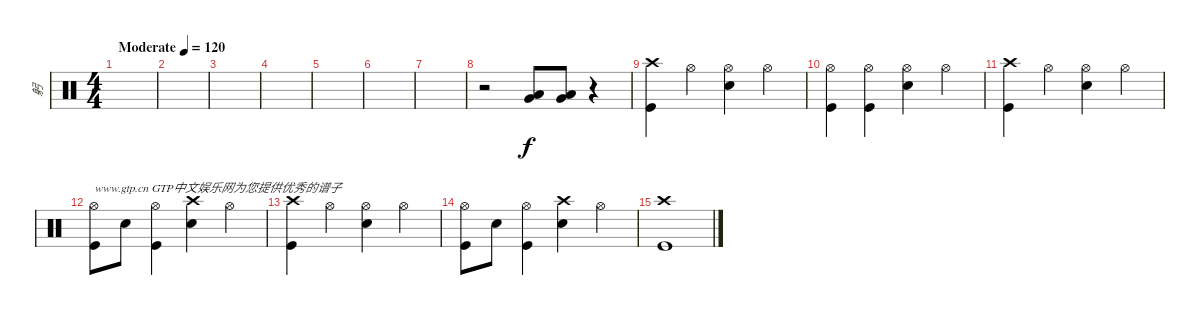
\track ("躬" "躬") {instrument percussion}
\staff {score}
\articulation defaults
\ts (4 4)
\tempo (120 "Moderate")
\clef neutral
\ks c
|
|
|
|
|
|
|
r.2 ("Low Tom (hit)" "Very Low Tom (hit)").8 ("Low Tom (hit)" "Very Low Tom (hit)").8 r.4 |
("Crash high (hit)" "Kick (hit)").4 "Hi-Hat (open)".4 ("Hi-Hat (open)" "Snare (hit) 2").4 "Hi-Hat (open)".4 |
("Hi-Hat (open)" "Kick (hit)").4 ("Hi-Hat (open)" "Kick (hit)").4 ("Hi-Hat (open)" "Snare (hit) 2").4 "Hi-Hat (open)".4 |
("Crash high (hit)" "Kick (hit)").4 "Hi-Hat (open)".4 ("Hi-Hat (open)" "Snare (hit) 2").4 "Hi-Hat (open)".4 |
("Hi-Hat (open)" "Kick (hit)").8{txt "www.gtp.cn GTP中文娱乐网为您提供优秀的谱子"} "Snare (hit) 2".8 ("Hi-Hat (open)" "Kick (hit)").4 ("Crash high (hit)" "Snare (hit) 2").4 "Hi-Hat (open)".4 |
("Crash high (hit)" "Kick (hit)").4 "Hi-Hat (open)".4 ("Hi-Hat (open)" "Snare (hit) 2").4 "Hi-Hat (open)".4 |
("Hi-Hat (open)" "Kick (hit)").8 "Snare (hit) 2".8 ("Hi-Hat (open)" "Kick (hit)").4 ("Crash high (hit)" "Snare (hit) 2").4 "Hi-Hat (open)".4 |
("Crash high (hit)" "Kick (hit)").1
